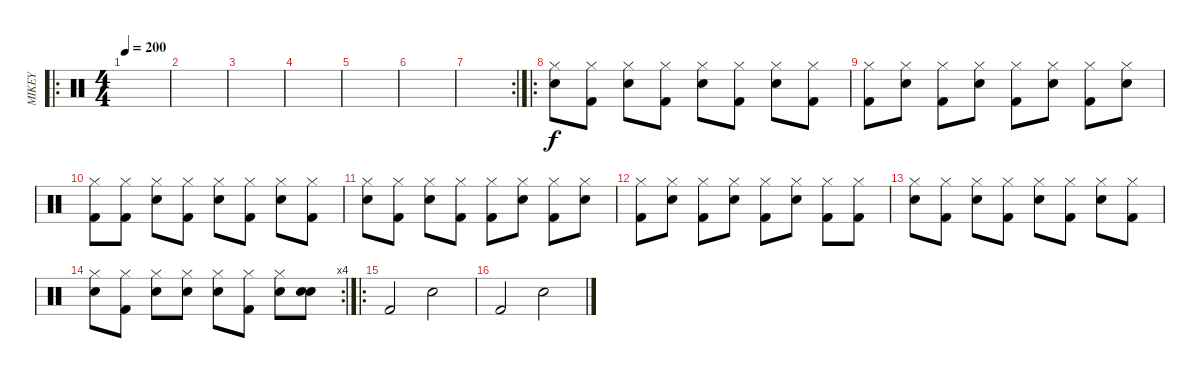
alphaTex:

\track ("MIKEY" "MIKEY") {instrument percussion}
\staff {score}
\articulation defaults
\ro
\ts (4 4)
\tempo 200
\clef neutral
\ks c
|
|
|
|
|
|
\rc 2
|
\ro
("Hi-Hat (closed)" "Electric Snare (hit)").8 ("Hi-Hat (closed)" "Kick (hit) 2").8 ("Hi-Hat (closed)" "Electric Snare (hit)").8 ("Hi-Hat (closed)" "Kick (hit) 2").8 ("Hi-Hat (closed)" "Electric Snare (hit)").8 ("Hi-Hat (closed)" "Kick (hit) 2").8 ("Hi-Hat (closed)" "Electric Snare (hit)").8 ("Hi-Hat (closed)" "Kick (hit) 2").8 |
("Hi-Hat (closed)" "Kick (hit) 2").8 ("Hi-Hat (closed)" "Electric Snare (hit)").8 ("Hi-Hat (closed)" "Kick (hit) 2").8 ("Hi-Hat (closed)" "Electric Snare (hit)").8 ("Hi-Hat (closed)" "Kick (hit) 2").8 ("Hi-Hat (closed)" "Electric Snare (hit)").8 ("Hi-Hat (closed)" "Kick (hit) 2").8 ("Hi-Hat (closed)" "Electric Snare (hit)").8 |
("Hi-Hat (closed)" "Kick (hit) 2").8 ("Hi-Hat (closed)" "Kick (hit) 2").8 ("Hi-Hat (closed)" "Electric Snare (hit)").8 ("Hi-Hat (closed)" "Kick (hit) 2").8 ("Hi-Hat (closed)" "Electric Snare (hit)").8 ("Hi-Hat (closed)" "Kick (hit) 2").8 ("Hi-Hat (closed)" "Electric Snare (hit)").8 ("Hi-Hat (closed)" "Kick (hit) 2").8 |
("Hi-Hat (closed)" "Electric Snare (hit)").8 ("Hi-Hat (closed)" "Kick (hit) 2").8 ("Hi-Hat (closed)" "Electric Snare (hit)").8 ("Hi-Hat (closed)" "Kick (hit) 2").8 ("Hi-Hat (closed)" "Kick (hit) 2").8 ("Hi-Hat (closed)" "Electric Snare (hit)").8 ("Hi-Hat (closed)" "Kick (hit) 2").8 ("Hi-Hat (closed)" "Electric Snare (hit)").8 |
("Hi-Hat (closed)" "Kick (hit) 2").8 ("Hi-Hat (closed)" "Electric Snare (hit)").8 ("Hi-Hat (closed)" "Kick (hit) 2").8 ("Hi-Hat (closed)" "Electric Snare (hit)").8 ("Hi-Hat (closed)" "Kick (hit) 2").8 ("Hi-Hat (closed)" "Electric Snare (hit)").8 ("Hi-Hat (closed)" "Kick (hit) 2").8 ("Hi-Hat (closed)" "Kick (hit) 2").8 |
("Hi-Hat (closed)" "Electric Snare (hit)").8 ("Hi-Hat (closed)" "Kick (hit) 2").8 ("Hi-Hat (closed)" "Electric Snare (hit)").8 ("Hi-Hat (closed)" "Kick (hit) 2").8 ("Hi-Hat (closed)" "Electric Snare (hit)").8 ("Hi-Hat (closed)" "Kick (hit) 2").8 ("Hi-Hat (closed)" "Electric Snare (hit)").8 ("Hi-Hat (closed)" "Kick (hit) 2").8 |
\rc 4
("Hi-Hat (closed)" "Electric Snare (hit)").8 ("Hi-Hat (closed)" "Kick (hit) 2").8 ("Hi-Hat (closed)" "Electric Snare (hit)").8 ("Hi-Hat (closed)" "Electric Snare (hit)").8 ("Hi-Hat (closed)" "Electric Snare (hit)").8 ("Hi-Hat (closed)" "Kick (hit) 2").8 ("Hi-Hat (closed)" "Electric Snare (hit)").8 ("Electric Snare (hit)" "Electric Snare (hit)").8 |
\ro "Kick (hit) 2".2 "Electric Snare (hit)".2
|
"Kick (hit) 2".2 "Electric Snare (hit)".2
